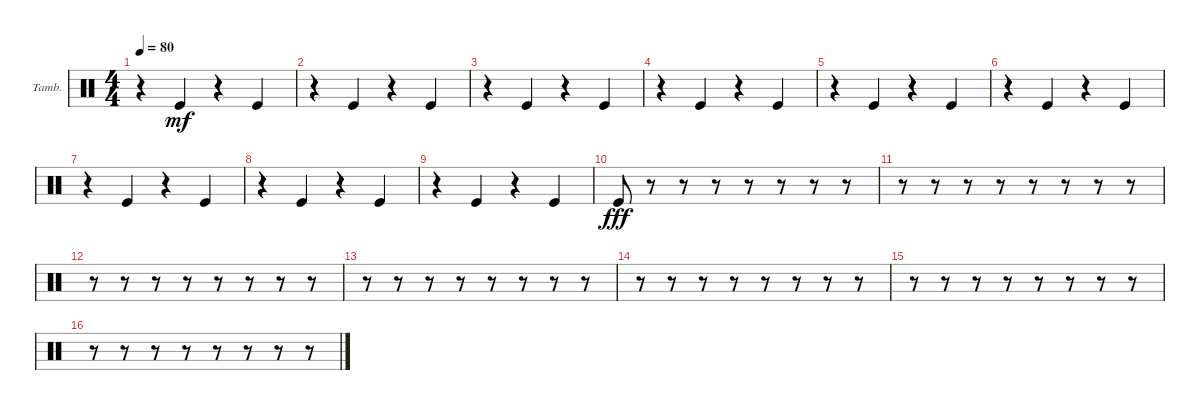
\bracketExtendMode groupsimilarinstruments
\firstSystemTrackNameOrientation horizontal
\otherSystemsTrackNameOrientation horizontal
\chordDiagramsInScore
\track ("Tambourine" "Tamb.") {instrument percussion}
\staff {score}
\articulation defaults
\ts (4 4)
\tempo 80
\clef neutral
\ks c
r.4{dy mf} "Kick (hit)".4 r.4 "Kick (hit)".4 |
r.4 "Kick (hit)".4 r.4 "Kick (hit)".4 |
r.4 "Kick (hit)".4 r.4 "Kick (hit)".4 |
r.4 "Kick (hit)".4 r.4 "Kick (hit)".4 |
r.4 "Kick (hit)".4 r.4 "Kick (hit)".4 |
r.4 "Kick (hit)".4 r.4 "Kick (hit)".4 |
r.4 "Kick (hit)".4 r.4 "Kick (hit)".4 |
r.4 "Kick (hit)".4 r.4 "Kick (hit)".4 |
r.4 "Kick (hit)".4 r.4 "Kick (hit)".4 |
"Kick (hit)".8{dy fff} r.8 r.8 r.8 r.8 r.8 r.8 r.8 |
r.8 r.8 r.8 r.8 r.8 r.8 r.8 r.8 |
r.8 r.8 r.8 r.8 r.8 r.8 r.8 r.8 |
r.8 r.8 r.8 r.8 r.8 r.8 r.8 r.8 |
r.8 r.8 r.8 r.8 r.8 r.8 r.8 r.8 |
r.8 r.8 r.8 r.8 r.8 r.8 r.8 r.8 |
r.8 r.8 r.8 r.8 r.8 r.8 r.8 r.8
